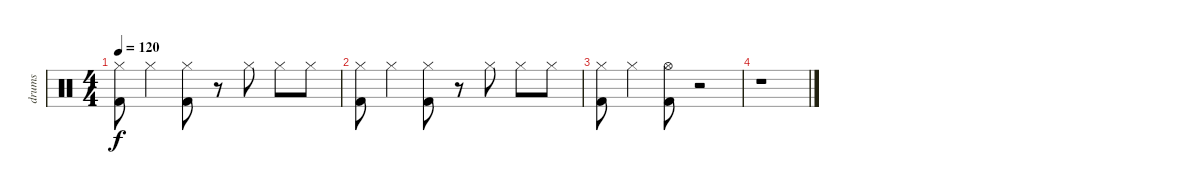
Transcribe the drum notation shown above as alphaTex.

\track ("drums" "drums") {instrument percussion}
\staff {score}
\articulation defaults
\ts (4 4)
\tempo 120
\clef neutral
\ks c
("Kick (hit) 2" "Hi-Hat (closed)").8{dy f} "Hi-Hat (closed)".4 ("Kick (hit) 2" "Hi-Hat (closed)").8 r.8 "Hi-Hat (closed)".8 "Hi-Hat (closed)".8 "Hi-Hat (closed)".8 |
("Kick (hit) 2" "Hi-Hat (closed)").8 "Hi-Hat (closed)".4 ("Kick (hit) 2" "Hi-Hat (closed)").8 r.8 "Hi-Hat (closed)".8 "Hi-Hat (closed)".8 "Hi-Hat (closed)".8 |
("Kick (hit) 2" "Hi-Hat (closed)").8 "Hi-Hat (closed)".4 ("Kick (hit) 2" "Hi-Hat (open)").8 r.2 |
r.1
